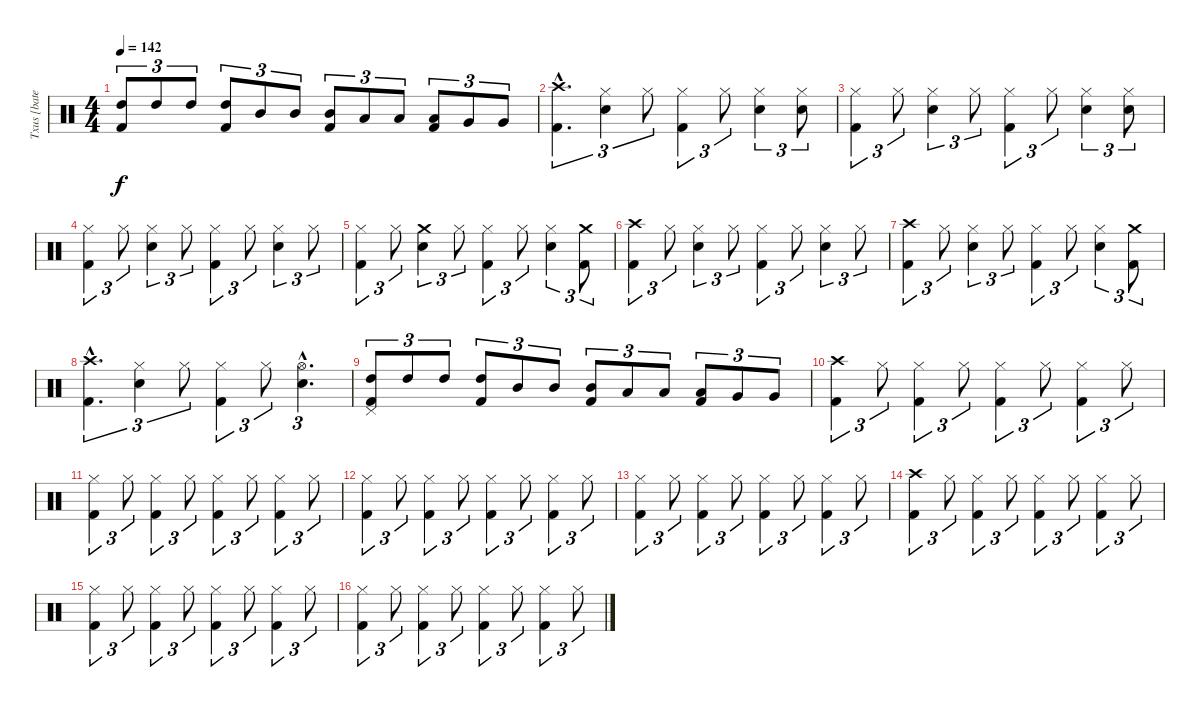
\track ("Txus [bateria]" "Txus [bate") {instrument percussion}
\staff {score}
\articulation defaults
\ts (4 4)
\tempo 142
\clef neutral
\ks c
("High Tom (hit)" "Kick (hit) 2").8{tu (3 2) dy f volume 13} "High Tom (hit)".8{tu (3 2)} "High Tom (hit)".8{tu (3 2)} ("High Tom (hit)" "Kick (hit) 2").8{tu (3 2)} "Mid Tom (hit)".8{tu (3 2)} "Mid Tom (hit)".8{tu (3 2)} ("Mid Tom (hit)" "Kick (hit) 2").8{tu (3 2)} "Low Tom (hit)".8{tu (3 2)} "Low Tom (hit)".8{tu (3 2)} ("Low Tom (hit)" "Kick (hit) 2").8{tu (3 2)} "Very Low Tom (hit)".8{tu (3 2)} "Very Low Tom (hit)".8{tu (3 2)} |
("Crash high (hit)"{hac} "Kick (hit) 2"{hac}).4{d tu (3 2)} ("Hi-Hat (closed)" "Snare (hit) 2").4{tu (3 2)} "Hi-Hat (closed)".8{tu (3 2)} ("Hi-Hat (closed)" "Kick (hit) 2").4{tu (3 2)} "Hi-Hat (closed)".8{tu (3 2)} ("Hi-Hat (closed)" "Snare (hit) 2").4{tu (3 2)} ("Hi-Hat (closed)" "Snare (hit) 2").8{tu (3 2)} |
("Hi-Hat (closed)" "Kick (hit) 2").4{tu (3 2)} "Hi-Hat (closed)".8{tu (3 2)} ("Hi-Hat (closed)" "Snare (hit) 2").4{tu (3 2)} "Hi-Hat (closed)".8{tu (3 2)} ("Hi-Hat (closed)" "Kick (hit) 2").4{tu (3 2)} "Hi-Hat (closed)".8{tu (3 2)} ("Hi-Hat (closed)" "Snare (hit) 2").4{tu (3 2)} ("Hi-Hat (closed)" "Snare (hit) 2").8{tu (3 2)} |
("Hi-Hat (closed)" "Kick (hit) 2").4{tu (3 2)} "Hi-Hat (closed)".8{tu (3 2)} ("Hi-Hat (closed)" "Snare (hit) 2").4{tu (3 2)} "Hi-Hat (closed)".8{tu (3 2)} ("Hi-Hat (closed)" "Kick (hit) 2").4{tu (3 2)} "Hi-Hat (closed)".8{tu (3 2)} ("Hi-Hat (closed)" "Snare (hit) 2").4{tu (3 2)} "Hi-Hat (closed)".8{tu (3 2)} |
("Hi-Hat (closed)" "Kick (hit) 2").4{tu (3 2)} "Hi-Hat (closed)".8{tu (3 2)} ("Crash medium (hit)" "Snare (hit) 2").4{tu (3 2)} "Hi-Hat (closed)".8{tu (3 2)} ("Hi-Hat (closed)" "Kick (hit) 2").4{tu (3 2)} "Hi-Hat (closed)".8{tu (3 2)} ("Hi-Hat (closed)" "Snare (hit) 2").4{tu (3 2)} ("Crash medium (hit)" "Kick (hit) 2").8{tu (3 2)} |
("Crash high (hit)" "Kick (hit) 2").4{tu (3 2)} "Hi-Hat (closed)".8{tu (3 2)} ("Hi-Hat (closed)" "Snare (hit) 2").4{tu (3 2)} "Hi-Hat (closed)".8{tu (3 2)} ("Hi-Hat (closed)" "Kick (hit) 2").4{tu (3 2)} "Hi-Hat (closed)".8{tu (3 2)} ("Hi-Hat (closed)" "Snare (hit) 2").4{tu (3 2)} "Hi-Hat (closed)".8{tu (3 2)} |
("Crash high (hit)" "Kick (hit) 2").4{tu (3 2)} "Hi-Hat (closed)".8{tu (3 2)} ("Hi-Hat (closed)" "Snare (hit) 2").4{tu (3 2)} "Hi-Hat (closed)".8{tu (3 2)} ("Hi-Hat (closed)" "Kick (hit) 2").4{tu (3 2)} "Hi-Hat (closed)".8{tu (3 2)} ("Hi-Hat (closed)" "Snare (hit) 2").4{tu (3 2)} ("Crash medium (hit)" "Kick (hit) 2").8{tu (3 2)} |
("Crash high (hit)"{hac} "Kick (hit) 2"{hac}).4{d tu (3 2)} ("Hi-Hat (closed)" "Snare (hit) 2").4{tu (3 2)} "Hi-Hat (closed)".8{tu (3 2)} ("Hi-Hat (closed)" "Kick (hit) 2").4{tu (3 2)} "Hi-Hat (closed)".8{tu (3 2)} ("Hi-Hat (open)"{hac} "Snare (hit) 2"{hac}).4{d tu (3 2)} |
("Pedal Hi-Hat (hit)" "High Tom (hit)" "Kick (hit) 2").8{tu (3 2)} "High Tom (hit)".8{tu (3 2)} "High Tom (hit)".8{tu (3 2)} ("High Tom (hit)" "Kick (hit) 2").8{tu (3 2)} "Mid Tom (hit)".8{tu (3 2)} "Mid Tom (hit)".8{tu (3 2)} ("Mid Tom (hit)" "Kick (hit) 2").8{tu (3 2)} "Low Tom (hit)".8{tu (3 2)} "Low Tom (hit)".8{tu (3 2)} ("Low Tom (hit)" "Kick (hit) 2").8{tu (3 2)} "Very Low Tom (hit)".8{tu (3 2)} "Very Low Tom (hit)".8{tu (3 2)} |
("Crash high (hit)" "Kick (hit) 2").4{tu (3 2)} "Hi-Hat (closed)".8{tu (3 2)} ("Hi-Hat (closed)" "Kick (hit) 2").4{tu (3 2)} "Hi-Hat (closed)".8{tu (3 2)} ("Hi-Hat (closed)" "Kick (hit) 2").4{tu (3 2)} "Hi-Hat (closed)".8{tu (3 2)} ("Hi-Hat (closed)" "Kick (hit) 2").4{tu (3 2)} "Hi-Hat (closed)".8{tu (3 2)} |
("Hi-Hat (closed)" "Kick (hit) 2").4{tu (3 2)} "Hi-Hat (closed)".8{tu (3 2)} ("Hi-Hat (closed)" "Kick (hit) 2").4{tu (3 2)} "Hi-Hat (closed)".8{tu (3 2)} ("Hi-Hat (closed)" "Kick (hit) 2").4{tu (3 2)} "Hi-Hat (closed)".8{tu (3 2)} ("Hi-Hat (closed)" "Kick (hit) 2").4{tu (3 2)} "Hi-Hat (closed)".8{tu (3 2)} |
("Hi-Hat (closed)" "Kick (hit) 2").4{tu (3 2)} "Hi-Hat (closed)".8{tu (3 2)} ("Hi-Hat (closed)" "Kick (hit) 2").4{tu (3 2)} "Hi-Hat (closed)".8{tu (3 2)} ("Hi-Hat (closed)" "Kick (hit) 2").4{tu (3 2)} "Hi-Hat (closed)".8{tu (3 2)} ("Hi-Hat (closed)" "Kick (hit) 2").4{tu (3 2)} "Hi-Hat (closed)".8{tu (3 2)} |
("Hi-Hat (closed)" "Kick (hit) 2").4{tu (3 2)} "Hi-Hat (closed)".8{tu (3 2)} ("Hi-Hat (closed)" "Kick (hit) 2").4{tu (3 2)} "Hi-Hat (closed)".8{tu (3 2)} ("Hi-Hat (closed)" "Kick (hit) 2").4{tu (3 2)} "Hi-Hat (closed)".8{tu (3 2)} ("Hi-Hat (closed)" "Kick (hit) 2").4{tu (3 2)} "Hi-Hat (closed)".8{tu (3 2)} |
("Crash high (hit)" "Kick (hit) 2").4{tu (3 2)} "Hi-Hat (closed)".8{tu (3 2)} ("Hi-Hat (closed)" "Kick (hit) 2").4{tu (3 2)} "Hi-Hat (closed)".8{tu (3 2)} ("Hi-Hat (closed)" "Kick (hit) 2").4{tu (3 2)} "Hi-Hat (closed)".8{tu (3 2)} ("Hi-Hat (closed)" "Kick (hit) 2").4{tu (3 2)} "Hi-Hat (closed)".8{tu (3 2)} |
("Hi-Hat (closed)" "Kick (hit) 2").4{tu (3 2)} "Hi-Hat (closed)".8{tu (3 2)} ("Hi-Hat (closed)" "Kick (hit) 2").4{tu (3 2)} "Hi-Hat (closed)".8{tu (3 2)} ("Hi-Hat (closed)" "Kick (hit) 2").4{tu (3 2)} "Hi-Hat (closed)".8{tu (3 2)} ("Hi-Hat (closed)" "Kick (hit) 2").4{tu (3 2)} "Hi-Hat (closed)".8{tu (3 2)} |
("Hi-Hat (closed)" "Kick (hit) 2").4{tu (3 2)} "Hi-Hat (closed)".8{tu (3 2)} ("Hi-Hat (closed)" "Kick (hit) 2").4{tu (3 2)} "Hi-Hat (closed)".8{tu (3 2)} ("Hi-Hat (closed)" "Kick (hit) 2").4{tu (3 2)} "Hi-Hat (closed)".8{tu (3 2)} ("Hi-Hat (closed)" "Kick (hit) 2").4{tu (3 2)} "Hi-Hat (closed)".8{tu (3 2)}
